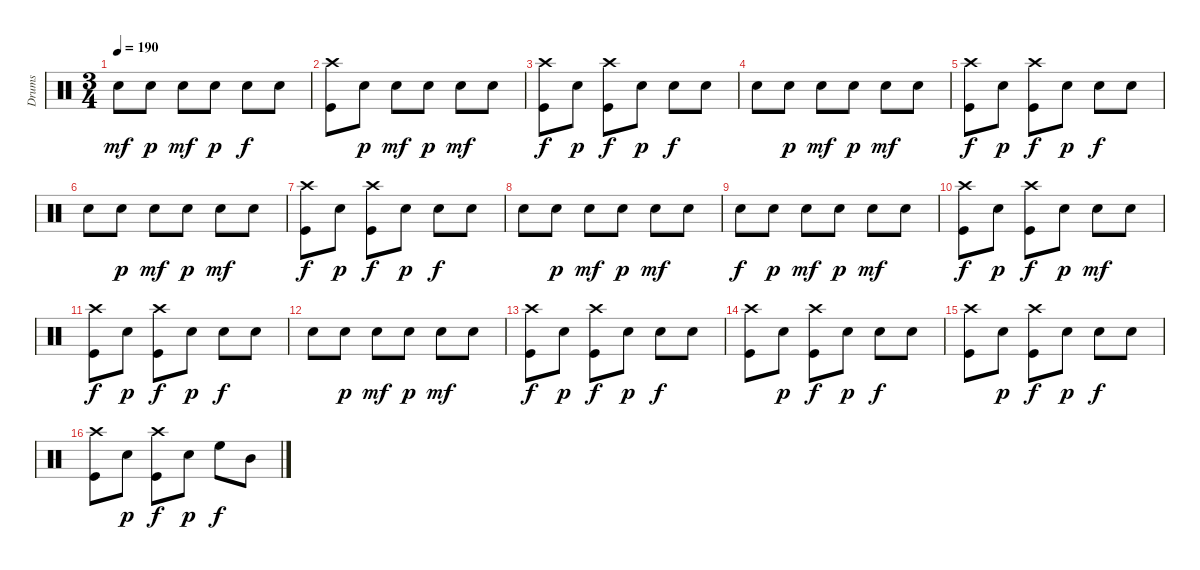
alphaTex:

\track ("Drums" "Drums") {instrument percussion}
\staff {score}
\articulation defaults
\ts (3 4)
\tempo 190
\clef neutral
\ks c "Snare (hit) 2".8{dy mf} "Snare (hit) 2".8{dy p} "Snare (hit) 2".8{dy mf} "Snare (hit) 2".8{dy p} "Snare (hit) 2".8{dy f} "Snare (hit) 2".8
|
("Crash high (hit)" "Kick (hit)").8 "Snare (hit) 2".8{dy p} "Snare (hit) 2".8{dy mf} "Snare (hit) 2".8{dy p} "Snare (hit) 2".8{dy mf} "Snare (hit) 2".8 |
("Crash high (hit)" "Kick (hit)").8{dy f} "Snare (hit) 2".8{dy p} ("Crash high (hit)" "Kick (hit)").8{dy f} "Snare (hit) 2".8{dy p} "Snare (hit) 2".8{dy f} "Snare (hit) 2".8 |
"Snare (hit) 2".8 "Snare (hit) 2".8{dy p} "Snare (hit) 2".8{dy mf} "Snare (hit) 2".8{dy p} "Snare (hit) 2".8{dy mf} "Snare (hit) 2".8 |
("Crash high (hit)" "Kick (hit)").8{dy f} "Snare (hit) 2".8{dy p} ("Crash high (hit)" "Kick (hit)").8{dy f} "Snare (hit) 2".8{dy p} "Snare (hit) 2".8{dy f} "Snare (hit) 2".8 |
"Snare (hit) 2".8 "Snare (hit) 2".8{dy p} "Snare (hit) 2".8{dy mf} "Snare (hit) 2".8{dy p} "Snare (hit) 2".8{dy mf} "Snare (hit) 2".8 |
("Crash high (hit)" "Kick (hit)").8{dy f} "Snare (hit) 2".8{dy p} ("Crash high (hit)" "Kick (hit)").8{dy f} "Snare (hit) 2".8{dy p} "Snare (hit) 2".8{dy f} "Snare (hit) 2".8 |
"Snare (hit) 2".8 "Snare (hit) 2".8{dy p} "Snare (hit) 2".8{dy mf} "Snare (hit) 2".8{dy p} "Snare (hit) 2".8{dy mf} "Snare (hit) 2".8 |
"Snare (hit) 2".8{dy f} "Snare (hit) 2".8{dy p} "Snare (hit) 2".8{dy mf} "Snare (hit) 2".8{dy p} "Snare (hit) 2".8{dy mf} "Snare (hit) 2".8 |
("Crash high (hit)" "Kick (hit)").8{dy f} "Snare (hit) 2".8{dy p} ("Crash high (hit)" "Kick (hit)").8{dy f} "Snare (hit) 2".8{dy p} "Snare (hit) 2".8{dy mf} "Snare (hit) 2".8 |
("Crash high (hit)" "Kick (hit)").8{dy f} "Snare (hit) 2".8{dy p} ("Crash high (hit)" "Kick (hit)").8{dy f} "Snare (hit) 2".8{dy p} "Snare (hit) 2".8{dy f} "Snare (hit) 2".8 |
"Snare (hit) 2".8 "Snare (hit) 2".8{dy p} "Snare (hit) 2".8{dy mf} "Snare (hit) 2".8{dy p} "Snare (hit) 2".8{dy mf} "Snare (hit) 2".8 |
("Crash high (hit)" "Kick (hit)").8{dy f} "Snare (hit) 2".8{dy p} ("Crash high (hit)" "Kick (hit)").8{dy f} "Snare (hit) 2".8{dy p} "Snare (hit) 2".8{dy f} "Snare (hit) 2".8 |
("Crash high (hit)" "Kick (hit)").8 "Snare (hit) 2".8{dy p} ("Crash high (hit)" "Kick (hit)").8{dy f} "Snare (hit) 2".8{dy p} "Snare (hit) 2".8{dy f} "Snare (hit) 2".8 |
("Crash high (hit)" "Kick (hit)").8 "Snare (hit) 2".8{dy p} ("Crash high (hit)" "Kick (hit)").8{dy f} "Snare (hit) 2".8{dy p} "Snare (hit) 2".8{dy f} "Snare (hit) 2".8 |
("Crash high (hit)" "Kick (hit)").8 "Snare (hit) 2".8{dy p} ("Crash high (hit)" "Kick (hit)").8{dy f} "Snare (hit) 2".8{dy p} "High Floor Tom (hit)".8{dy f} "Mid Tom (hit)".8
